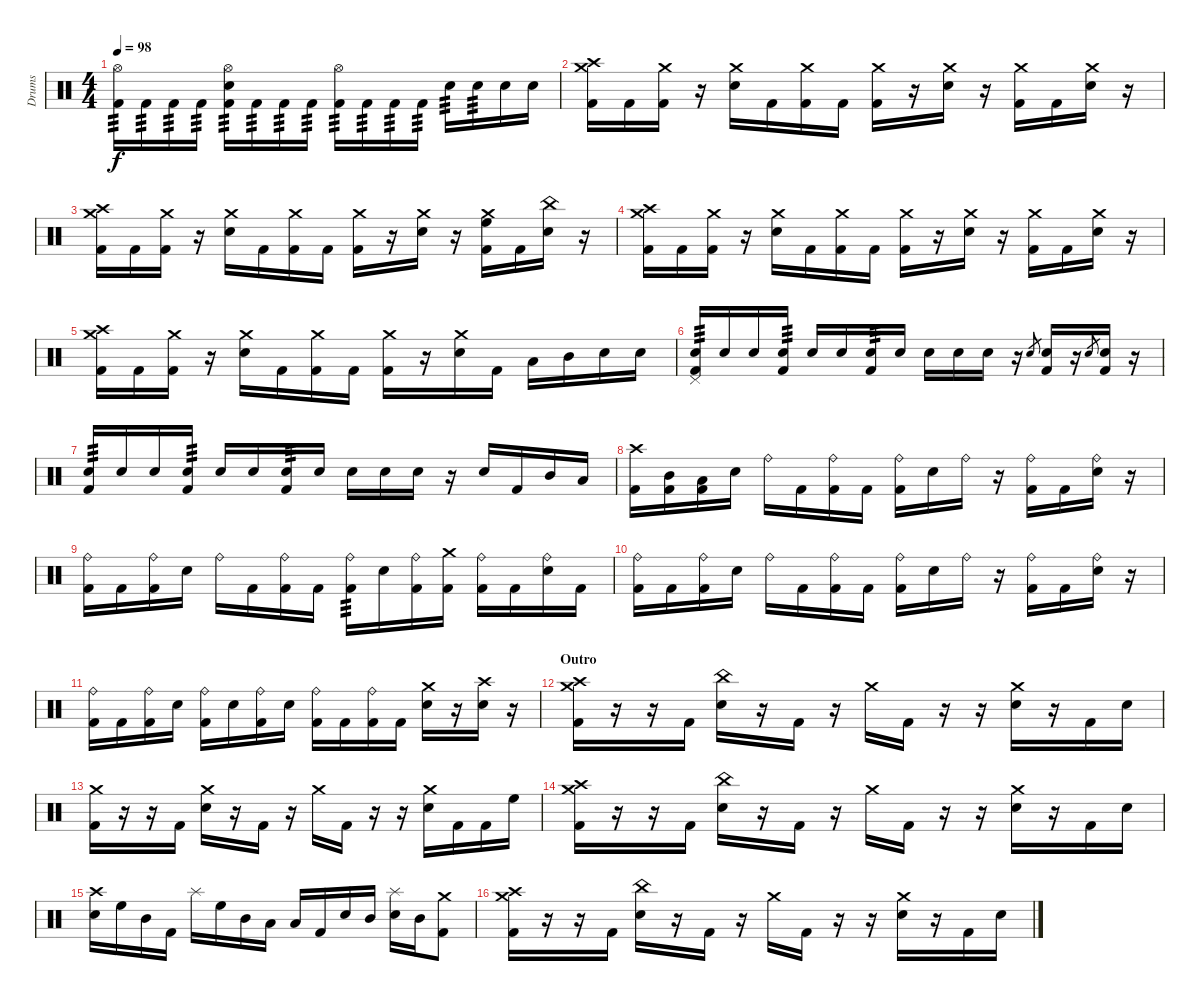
\track ("Drums" "Drums") {instrument percussion}
\staff {score}
\articulation defaults
\ts (4 4)
\tempo 98
\clef neutral
\ks c
("Hi-Hat (open)" "Kick (hit) 2").16{tp 3 dy f} "Kick (hit) 2".16{tp 3} "Kick (hit) 2".16{tp 3} "Kick (hit) 2".16{tp 3} ("Hi-Hat (open)" "Electric Snare (hit)" "Kick (hit) 2").16{tp 3} "Kick (hit) 2".16{tp 3} "Kick (hit) 2".16{tp 3} "Kick (hit) 2".16{tp 3} ("Hi-Hat (open)" "Kick (hit) 2").16{tp 3} "Kick (hit) 2".16{tp 3} "Kick (hit) 2".16{tp 3} "Kick (hit) 2".16{tp 3} "Electric Snare (hit)".16{tp 3} "Electric Snare (hit)".16{tp 3} "Electric Snare (hit)".16 "Electric Snare (hit)".16 |
("Crash medium (hit)" "Crash high (hit)" "Kick (hit) 2").16 "Kick (hit) 2".16 ("Crash medium (hit)" "Kick (hit) 2").16 r.16 ("Crash medium (hit)" "Electric Snare (hit)").16 "Kick (hit) 2".16 ("Crash medium (hit)" "Kick (hit) 2").16 "Kick (hit) 2".16 ("Crash medium (hit)" "Kick (hit) 2").16 r.16 ("Crash medium (hit)" "Electric Snare (hit)").16 r.16 ("Crash medium (hit)" "Kick (hit) 2").16 "Kick (hit) 2".16 ("Crash medium (hit)" "Electric Snare (hit)").16 r.16 |
("Crash medium (hit)" "Crash high (hit)" "Kick (hit) 2").16 "Kick (hit) 2".16 ("Crash medium (hit)" "Kick (hit) 2").16 r.16 ("Crash medium (hit)" "Electric Snare (hit)").16 "Kick (hit) 2".16 ("Crash medium (hit)" "Kick (hit) 2").16 "Kick (hit) 2".16 ("Crash medium (hit)" "Kick (hit) 2").16 r.16 ("Crash medium (hit)" "Electric Snare (hit)").16 r.16 ("Crash medium (hit)" "High Floor Tom (hit)" "Kick (hit) 2").16 "Kick (hit) 2".16 ("China (hit)" "Electric Snare (hit)").16 r.16 |
("Crash medium (hit)" "Crash high (hit)" "Kick (hit) 2").16 "Kick (hit) 2".16 ("Crash medium (hit)" "Kick (hit) 2").16 r.16 ("Crash medium (hit)" "Electric Snare (hit)").16 "Kick (hit) 2".16 ("Crash medium (hit)" "Kick (hit) 2").16 "Kick (hit) 2".16 ("Crash medium (hit)" "Kick (hit) 2").16 r.16 ("Crash medium (hit)" "Electric Snare (hit)").16 r.16 ("Crash medium (hit)" "Kick (hit) 2").16 "Kick (hit) 2".16 ("Crash medium (hit)" "Electric Snare (hit)").16 r.16 |
("Crash medium (hit)" "Crash high (hit)" "Kick (hit) 2").16 "Kick (hit) 2".16 ("Crash medium (hit)" "Kick (hit) 2").16 r.16 ("Crash medium (hit)" "Electric Snare (hit)").16 "Kick (hit) 2".16 ("Crash medium (hit)" "Kick (hit) 2").16 "Kick (hit) 2".16 ("Crash medium (hit)" "Kick (hit) 2").16 r.16 ("Crash medium (hit)" "Electric Snare (hit)").16 "Kick (hit) 2".16 "Low Tom (hit)".16 "Mid Tom (hit)".16 "Electric Snare (hit)".16 "Electric Snare (hit)".16 |
\section ("" "")
("Pedal Hi-Hat (hit)" "Electric Snare (hit)" "Kick (hit) 2").16{tp 3} "Electric Snare (hit)".16 "Electric Snare (hit)".16 ("Electric Snare (hit)" "Kick (hit) 2").16{tp 3} "Electric Snare (hit)".16 "Electric Snare (hit)".16 ("Electric Snare (hit)" "Kick (hit) 2").16{tp 3} "Electric Snare (hit)".16 "Electric Snare (hit)".16 "Electric Snare (hit)".16 "Electric Snare (hit)".16 r.16 "Electric Snare (hit)".8{gr} ("Electric Snare (hit)" "Kick (hit) 2").16 r.16 "Electric Snare (hit)".8{gr} ("Electric Snare (hit)" "Kick (hit) 2").16 r.16 |
("Electric Snare (hit)" "Kick (hit) 2").16{tp 3} "Electric Snare (hit)".16 "Electric Snare (hit)".16 ("Electric Snare (hit)" "Kick (hit) 2").16{tp 3} "Electric Snare (hit)".16 "Electric Snare (hit)".16 ("Electric Snare (hit)" "Kick (hit) 2").16{tp 3} "Electric Snare (hit)".16 "Electric Snare (hit)".16 "Electric Snare (hit)".16 "Electric Snare (hit)".16 r.16 "Electric Snare (hit)".16 "Kick (hit) 2".16 "Mid Tom (hit)".16 "Low Tom (hit)".16 |
("Crash high (hit)" "Kick (hit) 2").16 ("Mid Tom (hit)" "Kick (hit) 2").16 ("Low Tom (hit)" "Kick (hit) 2").16 "Electric Snare (hit)".16 "Ride (bell)".16 "Kick (hit) 2".16 ("Ride (bell)" "Kick (hit) 2").16 "Kick (hit) 2".16 ("Ride (bell)" "Kick (hit) 2").16 "Electric Snare (hit)".16 "Ride (bell)".16 r.16 ("Ride (bell)" "Kick (hit) 2").16 "Kick (hit) 2".16 ("Ride (bell)" "Electric Snare (hit)").16 r.16 |
("Ride (bell)" "Kick (hit) 2").16 "Kick (hit) 2".16 ("Ride (bell)" "Kick (hit) 2").16 "Electric Snare (hit)".16 "Ride (bell)".16 "Kick (hit) 2".16 ("Ride (bell)" "Kick (hit) 2").16 "Kick (hit) 2".16 ("Ride (bell)" "Kick (hit) 2").16{tp 3} "Electric Snare (hit)".16 ("Ride (bell)" "Kick (hit) 2").16 ("Crash medium (hit)" "Kick (hit) 2").16 ("Ride (bell)" "Kick (hit) 2").16 "Kick (hit) 2".16 ("Ride (bell)" "Electric Snare (hit)").16 "Kick (hit) 2".16 |
("Ride (bell)" "Kick (hit) 2").16 "Kick (hit) 2".16 ("Ride (bell)" "Kick (hit) 2").16 "Electric Snare (hit)".16 "Ride (bell)".16 "Kick (hit) 2".16 ("Ride (bell)" "Kick (hit) 2").16 "Kick (hit) 2".16 ("Ride (bell)" "Kick (hit) 2").16 "Electric Snare (hit)".16 "Ride (bell)".16 r.16 ("Ride (bell)" "Kick (hit) 2").16 "Kick (hit) 2".16 ("Ride (bell)" "Electric Snare (hit)").16 r.16 |
("Ride (bell)" "Kick (hit) 2").16 "Kick (hit) 2".16 ("Ride (bell)" "Kick (hit) 2").16 "Electric Snare (hit)".16 ("Ride (bell)" "Kick (hit) 2").16 "Electric Snare (hit)".16 ("Ride (bell)" "Kick (hit) 2").16 "Electric Snare (hit)".16 ("Ride (bell)" "Kick (hit) 2").16 "Kick (hit) 2".16 ("Ride (bell)" "Kick (hit) 2").16 "Kick (hit) 2".16 ("Crash medium (hit)" "Electric Snare (hit)").16 r.16 ("Crash high (hit)" "Electric Snare (hit)").16 r.16 |
\section ("" "Outro")
("Crash medium (hit)" "Crash high (hit)" "Kick (hit) 2").16 r.16 r.16 "Kick (hit) 2".16 ("China (hit)" "Electric Snare (hit)").16 r.16 "Kick (hit) 2".16 r.16 "Crash medium (hit)".16 "Kick (hit) 2".16 r.16 r.16 ("Crash medium (hit)" "Electric Snare (hit)").16 r.16 "Kick (hit) 2".16 "Electric Snare (hit)".16 |
("Crash medium (hit)" "Kick (hit) 2").16 r.16 r.16 "Kick (hit) 2".16 ("Crash medium (hit)" "Electric Snare (hit)").16 r.16 "Kick (hit) 2".16 r.16 "Crash medium (hit)".16 "Kick (hit) 2".16 r.16 r.16 ("Crash medium (hit)" "Electric Snare (hit)").16 "Kick (hit) 2".16 "Kick (hit) 2".16 "High Floor Tom (hit)".16 |
("Crash medium (hit)" "Crash high (hit)" "Kick (hit) 2").16 r.16 r.16 "Kick (hit) 2".16 ("China (hit)" "Electric Snare (hit)").16 r.16 "Kick (hit) 2".16 r.16 "Crash medium (hit)".16 "Kick (hit) 2".16 r.16 r.16 ("Crash medium (hit)" "Electric Snare (hit)").16 r.16 "Kick (hit) 2".16 "Electric Snare (hit)".16 |
("Crash high (hit)" "Electric Snare (hit)").16 "High Floor Tom (hit)".16 "Mid Tom (hit)".16 "Kick (hit) 2".16 "Splash (hit)".16 "High Floor Tom (hit)".16 "Mid Tom (hit)".16 "Low Tom (hit)".16 "Low Floor Tom (hit)".16 "Kick (hit) 2".16 "Electric Snare (hit)".16 "Mid Tom (hit)".16 ("Splash (hit)" "Electric Snare (hit)").16 "Mid Tom (hit)".16 ("Crash medium (hit)" "Kick (hit) 2").8 |
("Crash medium (hit)" "Crash high (hit)" "Kick (hit) 2").16 r.16 r.16 "Kick (hit) 2".16 ("China (hit)" "Electric Snare (hit)").16 r.16 "Kick (hit) 2".16 r.16 "Crash medium (hit)".16 "Kick (hit) 2".16 r.16 r.16 ("Crash medium (hit)" "Electric Snare (hit)").16 r.16 "Kick (hit) 2".16 "Electric Snare (hit)".16
